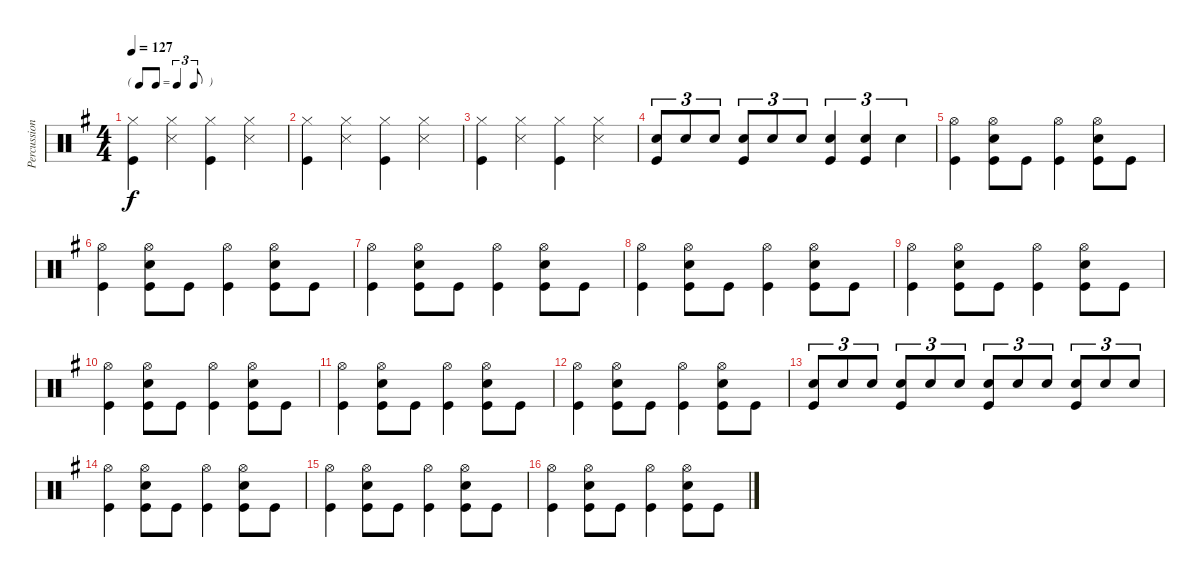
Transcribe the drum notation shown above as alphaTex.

\track ("Percussion" "Percussion") {instrument percussion}
\staff {score}
\articulation defaults
\ts (4 4)
\tf triplet8th
\tempo 127
\clef neutral
\ks g
("Hi-Hat (closed)" "Kick (hit)").4{dy f} ("Hi-Hat (closed)" "Snare (side stick) 3").4 ("Hi-Hat (closed)" "Kick (hit)").4 ("Hi-Hat (closed)" "Snare (side stick) 3").4 |
("Hi-Hat (closed)" "Kick (hit)").4 ("Hi-Hat (closed)" "Snare (side stick) 3").4 ("Hi-Hat (closed)" "Kick (hit)").4 ("Hi-Hat (closed)" "Snare (side stick) 3").4 |
("Hi-Hat (closed)" "Kick (hit)").4 ("Hi-Hat (closed)" "Snare (side stick) 3").4 ("Hi-Hat (closed)" "Kick (hit)").4 ("Hi-Hat (closed)" "Snare (side stick) 3").4 |
("Snare (hit) 2" "Kick (hit)").8{tu (3 2)} "Snare (hit) 2".8{tu (3 2)} "Snare (hit) 2".8{tu (3 2)} ("Snare (hit) 2" "Kick (hit)").8{tu (3 2)} "Snare (hit) 2".8{tu (3 2)} "Snare (hit) 2".8{tu (3 2)} ("Snare (hit) 2" "Kick (hit)").4{tu (3 2)} ("Snare (hit) 2" "Kick (hit)").4{tu (3 2)} "Snare (hit) 2".4{tu (3 2)} |
("Hi-Hat (open)" "Kick (hit)").4 ("Hi-Hat (open)" "Snare (hit) 2" "Kick (hit)").8 "Kick (hit)".8 ("Hi-Hat (open)" "Kick (hit)").4 ("Hi-Hat (open)" "Snare (hit) 2" "Kick (hit)").8 "Kick (hit)".8 |
("Hi-Hat (open)" "Kick (hit)").4 ("Hi-Hat (open)" "Snare (hit) 2" "Kick (hit)").8 "Kick (hit)".8 ("Hi-Hat (open)" "Kick (hit)").4 ("Hi-Hat (open)" "Snare (hit) 2" "Kick (hit)").8 "Kick (hit)".8 |
("Hi-Hat (open)" "Kick (hit)").4 ("Hi-Hat (open)" "Snare (hit) 2" "Kick (hit)").8 "Kick (hit)".8 ("Hi-Hat (open)" "Kick (hit)").4 ("Hi-Hat (open)" "Snare (hit) 2" "Kick (hit)").8 "Kick (hit)".8 |
("Hi-Hat (open)" "Kick (hit)").4 ("Hi-Hat (open)" "Snare (hit) 2" "Kick (hit)").8 "Kick (hit)".8 ("Hi-Hat (open)" "Kick (hit)").4 ("Hi-Hat (open)" "Snare (hit) 2" "Kick (hit)").8 "Kick (hit)".8 |
("Hi-Hat (open)" "Kick (hit)").4 ("Hi-Hat (open)" "Snare (hit) 2" "Kick (hit)").8 "Kick (hit)".8 ("Hi-Hat (open)" "Kick (hit)").4 ("Hi-Hat (open)" "Snare (hit) 2" "Kick (hit)").8 "Kick (hit)".8 |
("Hi-Hat (open)" "Kick (hit)").4 ("Hi-Hat (open)" "Snare (hit) 2" "Kick (hit)").8 "Kick (hit)".8 ("Hi-Hat (open)" "Kick (hit)").4 ("Hi-Hat (open)" "Snare (hit) 2" "Kick (hit)").8 "Kick (hit)".8 |
("Hi-Hat (open)" "Kick (hit)").4 ("Hi-Hat (open)" "Snare (hit) 2" "Kick (hit)").8 "Kick (hit)".8 ("Hi-Hat (open)" "Kick (hit)").4 ("Hi-Hat (open)" "Snare (hit) 2" "Kick (hit)").8 "Kick (hit)".8 |
("Hi-Hat (open)" "Kick (hit)").4 ("Hi-Hat (open)" "Snare (hit) 2" "Kick (hit)").8 "Kick (hit)".8 ("Hi-Hat (open)" "Kick (hit)").4 ("Hi-Hat (open)" "Snare (hit) 2" "Kick (hit)").8 "Kick (hit)".8 |
("Snare (hit) 2" "Kick (hit)").8{tu (3 2)} "Snare (hit) 2".8{tu (3 2)} "Snare (hit) 2".8{tu (3 2)} ("Snare (hit) 2" "Kick (hit)").8{tu (3 2)} "Snare (hit) 2".8{tu (3 2)} "Snare (hit) 2".8{tu (3 2)} ("Snare (hit) 2" "Kick (hit)").8{tu (3 2)} "Snare (hit) 2".8{tu (3 2)} "Snare (hit) 2".8{tu (3 2)} ("Snare (hit) 2" "Kick (hit)").8{tu (3 2)} "Snare (hit) 2".8{tu (3 2)} "Snare (hit) 2".8{tu (3 2)} |
("Hi-Hat (open)" "Kick (hit)").4 ("Hi-Hat (open)" "Snare (hit) 2" "Kick (hit)").8 "Kick (hit)".8 ("Hi-Hat (open)" "Kick (hit)").4 ("Hi-Hat (open)" "Snare (hit) 2" "Kick (hit)").8 "Kick (hit)".8 |
("Hi-Hat (open)" "Kick (hit)").4 ("Hi-Hat (open)" "Snare (hit) 2" "Kick (hit)").8 "Kick (hit)".8 ("Hi-Hat (open)" "Kick (hit)").4 ("Hi-Hat (open)" "Snare (hit) 2" "Kick (hit)").8 "Kick (hit)".8 |
("Hi-Hat (open)" "Kick (hit)").4 ("Hi-Hat (open)" "Snare (hit) 2" "Kick (hit)").8 "Kick (hit)".8 ("Hi-Hat (open)" "Kick (hit)").4 ("Hi-Hat (open)" "Snare (hit) 2" "Kick (hit)").8 "Kick (hit)".8
